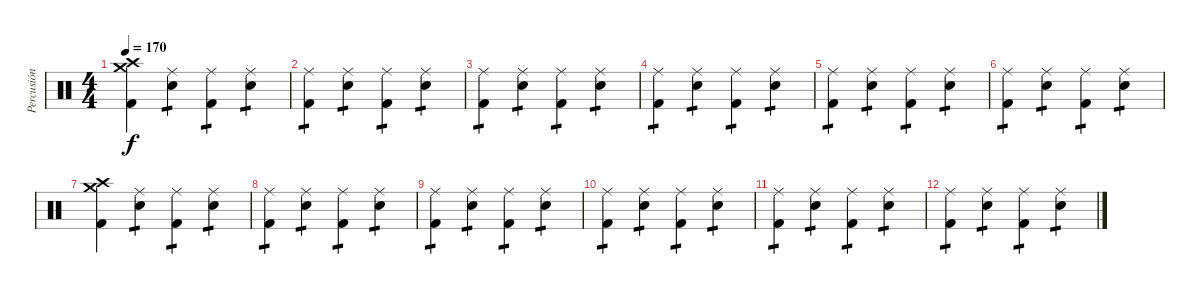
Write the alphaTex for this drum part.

\track ("Percusión" "Percusión") {instrument percussion}
\staff {score}
\articulation defaults
\ts (4 4)
\tempo 170
\clef neutral
\ks c
("Crash high (hit)" "Crash medium (hit)" "Kick (hit) 2").4{dy f} ("Ride (middle)" "Electric Snare (hit)").4{tp 1} ("Ride (middle)" "Kick (hit) 2").4{tp 1} ("Ride (middle)" "Electric Snare (hit)").4{tp 1} |
("Ride (middle)" "Kick (hit) 2").4{tp 1} ("Ride (middle)" "Electric Snare (hit)").4{tp 1} ("Ride (middle)" "Kick (hit) 2").4{tp 1} ("Ride (middle)" "Electric Snare (hit)").4{tp 1} |
("Ride (middle)" "Kick (hit) 2").4{tp 1} ("Ride (middle)" "Electric Snare (hit)").4{tp 1} ("Ride (middle)" "Kick (hit) 2").4{tp 1} ("Ride (middle)" "Electric Snare (hit)").4{tp 1} |
("Ride (middle)" "Kick (hit) 2").4{tp 1} ("Ride (middle)" "Electric Snare (hit)").4{tp 1} ("Ride (middle)" "Kick (hit) 2").4{tp 1} ("Ride (middle)" "Electric Snare (hit)").4{tp 1} |
("Ride (middle)" "Kick (hit) 2").4{tp 1} ("Ride (middle)" "Electric Snare (hit)").4{tp 1} ("Ride (middle)" "Kick (hit) 2").4{tp 1} ("Ride (middle)" "Electric Snare (hit)").4{tp 1} |
("Ride (middle)" "Kick (hit) 2").4{tp 1} ("Ride (middle)" "Electric Snare (hit)").4{tp 1} ("Ride (middle)" "Kick (hit) 2").4{tp 1} ("Ride (middle)" "Electric Snare (hit)").4{tp 1} |
("Crash high (hit)" "Crash medium (hit)" "Kick (hit) 2").4 ("Ride (middle)" "Electric Snare (hit)").4{tp 1} ("Ride (middle)" "Kick (hit) 2").4{tp 1} ("Ride (middle)" "Electric Snare (hit)").4{tp 1} |
("Ride (middle)" "Kick (hit) 2").4{tp 1} ("Ride (middle)" "Electric Snare (hit)").4{tp 1} ("Ride (middle)" "Kick (hit) 2").4{tp 1} ("Ride (middle)" "Electric Snare (hit)").4{tp 1} |
("Ride (middle)" "Kick (hit) 2").4{tp 1} ("Ride (middle)" "Electric Snare (hit)").4{tp 1} ("Ride (middle)" "Kick (hit) 2").4{tp 1} ("Ride (middle)" "Electric Snare (hit)").4{tp 1} |
("Ride (middle)" "Kick (hit) 2").4{tp 1} ("Ride (middle)" "Electric Snare (hit)").4{tp 1} ("Ride (middle)" "Kick (hit) 2").4{tp 1} ("Ride (middle)" "Electric Snare (hit)").4{tp 1} |
("Ride (middle)" "Kick (hit) 2").4{tp 1} ("Ride (middle)" "Electric Snare (hit)").4{tp 1} ("Ride (middle)" "Kick (hit) 2").4{tp 1} ("Ride (middle)" "Electric Snare (hit)").4{tp 1} |
("Ride (middle)" "Kick (hit) 2").4{tp 1} ("Ride (middle)" "Electric Snare (hit)").4{tp 1} ("Ride (middle)" "Kick (hit) 2").4{tp 1} ("Ride (middle)" "Electric Snare (hit)").4{tp 1}
